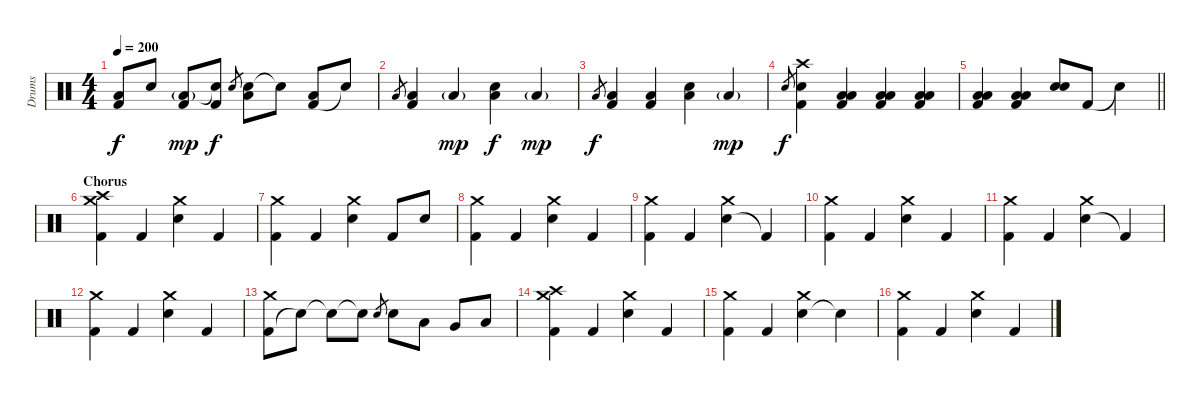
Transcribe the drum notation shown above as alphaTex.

\track ("Drums" "Drums") {instrument percussion}
\staff {score}
\articulation defaults
\ts (4 4)
\tempo 200
\clef neutral
\ks c
("Low Floor Tom (hit)" "Kick (hit) 2").8{dy f} "Electric Snare (hit)".8 ("Low Floor Tom (hit)"{g} "Kick (hit) 2").8{dy mp} ("Electric Snare (hit)"{t} "Kick (hit) 2").8{dy f} "Electric Snare (hit)".8{gr} ("Electric Snare (hit)" "Low Floor Tom (hit)").8 "Snare (hit)"{t}.8 ("Kick (hit) 2" "Low Floor Tom (hit)").8 "Snare (hit)"{t}.8 |
"Low Floor Tom (hit)".8{gr} ("Low Floor Tom (hit)" "Kick (hit) 2").4 "Low Floor Tom (hit)"{g}.4{dy mp} ("Low Floor Tom (hit)" "Electric Snare (hit)").4{dy f} "Low Floor Tom (hit)"{g}.4{dy mp} |
"Low Floor Tom (hit)".8{gr dy f} ("Low Floor Tom (hit)" "Kick (hit) 2").4 ("Low Floor Tom (hit)" "Kick (hit) 2").4 ("Low Floor Tom (hit)" "Electric Snare (hit)").4 "Low Floor Tom (hit)"{g}.4{dy mp} |
"Electric Snare (hit)".8{gr dy f} ("Electric Snare (hit)" "Crash high (hit)" "Kick (hit) 2").4 ("Kick (hit) 2" "Low Tom (hit)" "Low Floor Tom (hit)").4 ("Kick (hit) 2" "Low Tom (hit)" "Low Floor Tom (hit)").4 ("Kick (hit) 2" "Low Tom (hit)" "Low Floor Tom (hit)").4 |
\barLineRight lightlight
("Kick (hit) 2" "Low Tom (hit)" "Low Floor Tom (hit)").4 ("Kick (hit) 2" "Low Tom (hit)" "Low Floor Tom (hit)").4 ("Electric Snare (hit)" "Electric Snare (hit)").8 "Kick (hit) 2".8 "Snare (hit)"{t}.4 |
\section ("" "Chorus")
("Kick (hit) 2" "Crash medium (hit)" "Crash high (hit)").4 "Kick (hit) 2".4 ("Electric Snare (hit)" "Crash medium (hit)").4 "Kick (hit) 2".4 |
("Kick (hit) 2" "Crash medium (hit)").4 "Kick (hit) 2".4 ("Electric Snare (hit)" "Crash medium (hit)").4 "Kick (hit) 2".8 "Electric Snare (hit)".8 |
("Kick (hit) 2" "Crash medium (hit)").4 "Kick (hit) 2".4 ("Electric Snare (hit)" "Crash medium (hit)").4 "Kick (hit) 2".4 |
("Kick (hit) 2" "Crash medium (hit)").4 "Kick (hit) 2".4 ("Electric Snare (hit)" "Crash medium (hit)").4 "Kick (hit) 2"{t}.4 |
("Kick (hit) 2" "Crash medium (hit)").4 "Kick (hit) 2".4 ("Electric Snare (hit)" "Crash medium (hit)").4 "Kick (hit) 2".4 |
("Kick (hit) 2" "Crash medium (hit)").4 "Kick (hit) 2".4 ("Electric Snare (hit)" "Crash medium (hit)").4 "Kick (hit) 2"{t}.4 |
("Kick (hit) 2" "Crash medium (hit)").4 "Kick (hit) 2".4 ("Electric Snare (hit)" "Crash medium (hit)").4 "Kick (hit) 2".4 |
("Kick (hit) 2" "Crash medium (hit)").8 "Electric Snare (hit)"{t}.8 "Electric Snare (hit)"{t}.8 "Electric Snare (hit)"{t}.8 "Electric Snare (hit)".8{gr} "Electric Snare (hit)".8 "Low Tom (hit)".8 "Very Low Tom (hit)".8 "Low Floor Tom (hit)".8 |
("Kick (hit) 2" "Crash medium (hit)" "Crash high (hit)").4 "Kick (hit) 2".4 ("Electric Snare (hit)" "Crash medium (hit)").4 "Kick (hit) 2".4 |
("Kick (hit) 2" "Crash medium (hit)").4 "Kick (hit) 2".4 ("Electric Snare (hit)" "Crash medium (hit)").4 "Snare (hit)"{t}.4 |
("Kick (hit) 2" "Crash medium (hit)").4 "Kick (hit) 2".4 ("Electric Snare (hit)" "Crash medium (hit)").4 "Kick (hit) 2".4
